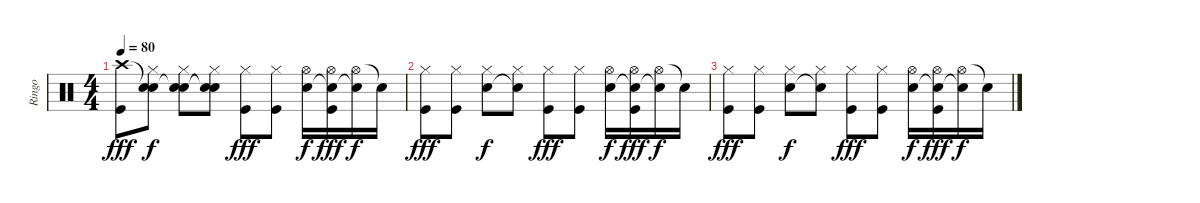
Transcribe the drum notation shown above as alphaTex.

\track ("Ringo" "Ringo") {instrument percussion}
\staff {score}
\articulation defaults
\ts (4 4)
\tempo 80
\clef neutral
\ks c
("Crash high (hit)" "Kick (hit)").8{dy fff} ("Snare (hit)"{t} "Hi-Hat (closed)" "Snare (hit)"{t}).8{dy f} ("Snare (hit)"{t} "Hi-Hat (closed)" "Electric Snare (hit)").8 ("Snare (hit)"{t} "Hi-Hat (closed)" "Snare (hit)"{t}).8 ("Hi-Hat (closed)" "Kick (hit)").8{dy fff} ("Hi-Hat (closed)" "Kick (hit)").8 ("Hi-Hat (open)" "Electric Snare (hit)").16{dy f} ("Hi-Hat (open)" "Snare (hit)"{t} "Kick (hit)").16{dy fff} ("Hi-Hat (open)" "Snare (hit)"{t}).16{dy f} "Snare (hit)"{t}.16 |
("Hi-Hat (closed)" "Kick (hit)").8{dy fff} ("Hi-Hat (closed)" "Kick (hit)").8 ("Hi-Hat (closed)" "Electric Snare (hit)").8{dy f} ("Hi-Hat (closed)" "Snare (hit)"{t}).8 ("Hi-Hat (closed)" "Kick (hit)").8{dy fff} ("Hi-Hat (closed)" "Kick (hit)").8 ("Hi-Hat (open)" "Electric Snare (hit)").16{dy f} ("Hi-Hat (open)" "Snare (hit)"{t} "Kick (hit)").16{dy fff} ("Hi-Hat (open)" "Snare (hit)"{t}).16{dy f} "Snare (hit)"{t}.16 |
("Hi-Hat (closed)" "Kick (hit)").8{dy fff} ("Hi-Hat (closed)" "Kick (hit)").8 ("Hi-Hat (closed)" "Electric Snare (hit)").8{dy f} ("Hi-Hat (closed)" "Snare (hit)"{t}).8 ("Hi-Hat (closed)" "Kick (hit)").8{dy fff} ("Hi-Hat (closed)" "Kick (hit)").8 ("Hi-Hat (open)" "Electric Snare (hit)").16{dy f} ("Hi-Hat (open)" "Snare (hit)"{t} "Kick (hit)").16{dy fff} ("Hi-Hat (open)" "Snare (hit)"{t}).16{dy f} "Snare (hit)"{t}.16
